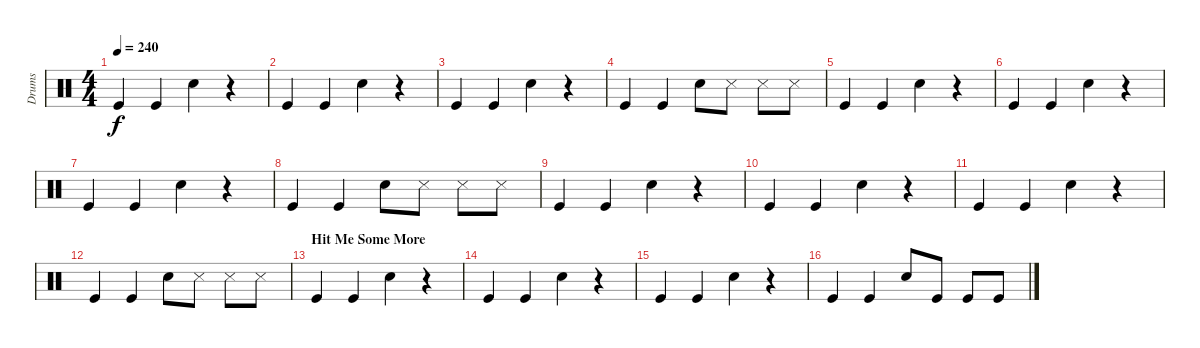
\track ("Drums" "Drums") {instrument percussion}
\staff {score}
\articulation defaults
\ts (4 4)
\tempo 240
\clef neutral
\ks c "Kick (hit)".4{dy f} "Kick (hit)".4 "Snare (hit) 2".4
r.4 |
"Kick (hit)".4 "Kick (hit)".4 "Snare (hit) 2".4 r.4 |
"Kick (hit)".4 "Kick (hit)".4 "Snare (hit) 2".4 r.4 |
"Kick (hit)".4 "Kick (hit)".4 "Snare (hit) 2".8 "Snare (side stick) 3".8 "Snare (side stick) 3".8 "Snare (side stick) 3".8 |
"Kick (hit)".4 "Kick (hit)".4 "Snare (hit) 2".4 r.4 |
"Kick (hit)".4 "Kick (hit)".4 "Snare (hit) 2".4 r.4 |
"Kick (hit)".4 "Kick (hit)".4 "Snare (hit) 2".4 r.4 |
"Kick (hit)".4 "Kick (hit)".4 "Snare (hit) 2".8 "Snare (side stick) 3".8 "Snare (side stick) 3".8 "Snare (side stick) 3".8 |
"Kick (hit)".4 "Kick (hit)".4 "Snare (hit) 2".4 r.4 |
"Kick (hit)".4 "Kick (hit)".4 "Snare (hit) 2".4 r.4 |
"Kick (hit)".4 "Kick (hit)".4 "Snare (hit) 2".4 r.4 |
"Kick (hit)".4 "Kick (hit)".4 "Snare (hit) 2".8 "Snare (side stick) 3".8 "Snare (side stick) 3".8 "Snare (side stick) 3".8 |
\section ("" "Hit Me Some More")
"Kick (hit)".4 "Kick (hit)".4 "Snare (hit) 2".4 r.4 |
"Kick (hit)".4 "Kick (hit)".4 "Snare (hit) 2".4 r.4 |
"Kick (hit)".4 "Kick (hit)".4 "Snare (hit) 2".4 r.4 |
"Kick (hit)".4 "Kick (hit)".4 "Snare (hit) 2".8 "Kick (hit)".8 "Kick (hit)".8 "Kick (hit)".8
